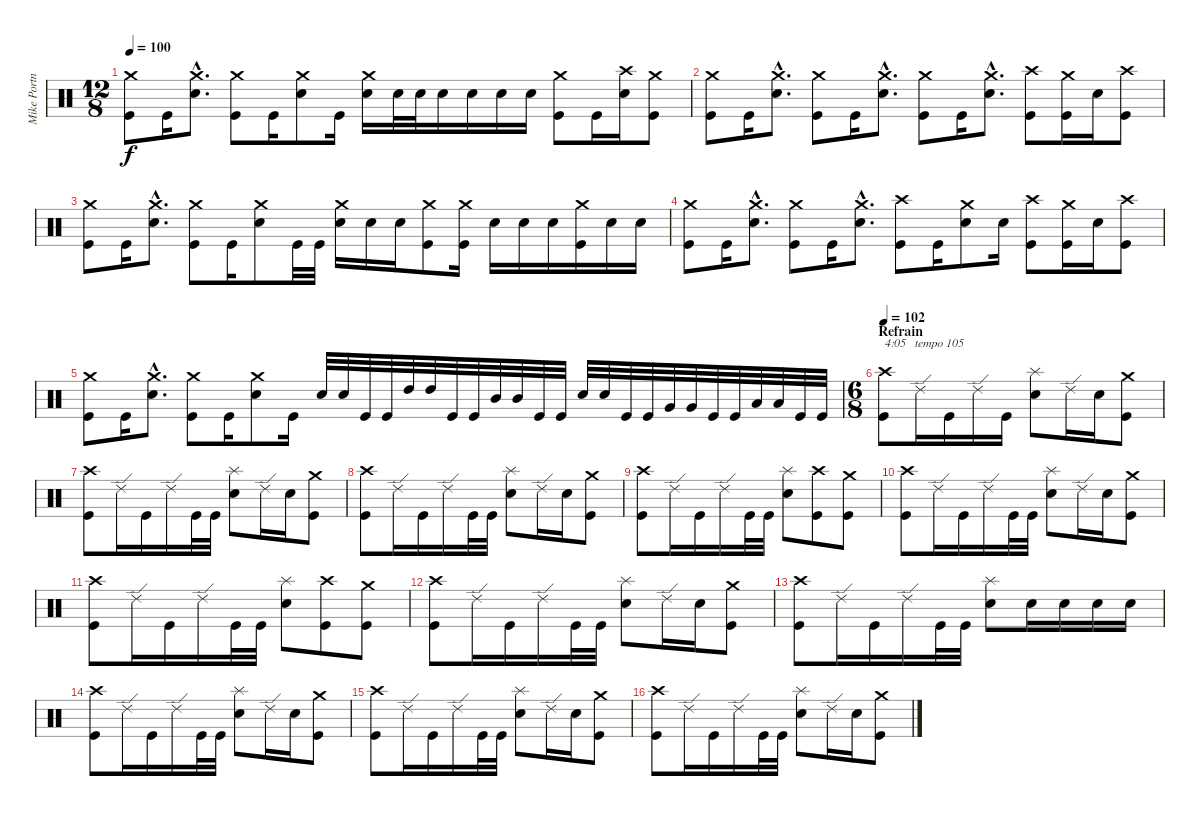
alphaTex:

\track ("Mike Portnoy" "Mike Portn") {instrument percussion}
\staff {score}
\articulation defaults
\ts (12 8)
\tempo 100
\clef neutral
\ks c
("Crash medium (hit)" "Kick (hit)").8{dy f} "Kick (hit)".16 ("Crash medium (hit)"{hac} "Snare (hit) 2"{hac}).8{d} ("Crash medium (hit)" "Kick (hit)").8 "Kick (hit)".16 ("Crash medium (hit)" "Snare (hit) 2").8 "Kick (hit)".16 ("Crash medium (hit)" "Snare (hit) 2").16 "Snare (hit) 2".32 "Snare (hit) 2".32 "Snare (hit) 2".16 "Snare (hit) 2".16 "Snare (hit) 2".16 "Snare (hit) 2".16 ("Crash medium (hit)" "Kick (hit)").8 "Kick (hit)".16 ("Crash high (hit)" "Snare (hit) 2").16 ("Crash medium (hit)" "Kick (hit)").8 |
\section ("" "")
("Crash medium (hit)" "Kick (hit)").8 "Kick (hit)".16 ("Crash medium (hit)"{hac} "Snare (hit) 2"{hac}).8{d} ("Crash medium (hit)" "Kick (hit)").8 "Kick (hit)".16 ("Crash medium (hit)"{hac} "Snare (hit) 2"{hac}).8{d} ("Crash medium (hit)" "Kick (hit)").8 "Kick (hit)".16 ("Crash medium (hit)"{hac} "Snare (hit) 2"{hac}).8{d} ("Crash high (hit)" "Kick (hit)").8 ("Crash medium (hit)" "Kick (hit)").16 "Snare (hit) 2".16 ("Crash high (hit)" "Kick (hit)").8 |
("Crash medium (hit)" "Kick (hit)").8 "Kick (hit)".16 ("Crash medium (hit)"{hac} "Snare (hit) 2"{hac}).8{d} ("Crash medium (hit)" "Kick (hit)").8 "Kick (hit)".16 ("Crash medium (hit)" "Snare (hit) 2").8 "Kick (hit)".32 "Kick (hit)".32 ("Crash medium (hit)" "Snare (hit) 2").16 "Snare (hit) 2".16 "Snare (hit) 2".16 ("Crash medium (hit)" "Kick (hit)").8 ("Crash medium (hit)" "Kick (hit)").16 "Snare (hit) 2".16 "Snare (hit) 2".16 "Snare (hit) 2".16 ("Crash medium (hit)" "Kick (hit)").16 "Snare (hit) 2".16 "Snare (hit) 2".16 |
("Crash medium (hit)" "Kick (hit)").8 "Kick (hit)".16 ("Crash medium (hit)"{hac} "Snare (hit) 2"{hac}).8{d} ("Crash medium (hit)" "Kick (hit)").8 "Kick (hit)".16 ("Crash medium (hit)"{hac} "Snare (hit) 2"{hac}).8{d} ("Crash high (hit)" "Kick (hit)").8 "Kick (hit)".16 ("Crash medium (hit)" "Snare (hit) 2").8 "Snare (hit) 2".16 ("Crash high (hit)" "Kick (hit)").8 ("Crash medium (hit)" "Kick (hit)").16 "Snare (hit) 2".16 ("Crash high (hit)" "Kick (hit)").8 |
("Crash medium (hit)" "Kick (hit)").8 "Kick (hit)".16 ("Crash medium (hit)"{hac} "Snare (hit) 2"{hac}).8{d} ("Crash medium (hit)" "Kick (hit)").8 "Kick (hit)".16 ("Crash medium (hit)" "Snare (hit) 2").8 "Kick (hit)".16 "Snare (hit) 2".32 "Snare (hit) 2".32 "Kick (hit)".32 "Kick (hit)".32 "High Tom (hit)".32 "High Tom (hit)".32 "Kick (hit)".32 "Kick (hit)".32 "Mid Tom (hit)".32 "Mid Tom (hit)".32 "Kick (hit)".32 "Kick (hit)".32 "Snare (hit) 2".32 "Snare (hit) 2".32 "Kick (hit)".32 "Kick (hit)".32 "Very Low Tom (hit)".32 "Very Low Tom (hit)".32 "Kick (hit)".32 "Kick (hit)".32 "Low Tom (hit)".32 "Low Tom (hit)".32 "Kick (hit)".32 "Kick (hit)".32 |
\ts (6 8)
\section ("" "Refrain")
\tempo 102
("Crash high (hit)" "Kick (hit)").8{txt "4:05   tempo 105"} "Ride (edge) 2".16 "Kick (hit)".16 "Ride (edge) 2".16 "Kick (hit)".16 ("Splash (hit)" "Snare (hit) 2").8 "Ride (edge) 2".16 "Snare (hit) 2".16 ("Crash medium (hit)" "Kick (hit)").8 |
("Crash high (hit)" "Kick (hit)").8 "Ride (edge) 2".16 "Kick (hit)".16 "Ride (edge) 2".16 "Kick (hit)".32 "Kick (hit)".32 ("Splash (hit)" "Snare (hit) 2").8 "Ride (edge) 2".16 "Snare (hit) 2".16 ("Crash medium (hit)" "Kick (hit)").8 |
("Crash high (hit)" "Kick (hit)").8 "Ride (edge) 2".16 "Kick (hit)".16 "Ride (edge) 2".16 "Kick (hit)".32 "Kick (hit)".32 ("Splash (hit)" "Snare (hit) 2").8 "Ride (edge) 2".16 "Snare (hit) 2".16 ("Crash medium (hit)" "Kick (hit)").8 |
("Crash high (hit)" "Kick (hit)").8 "Ride (edge) 2".16 "Kick (hit)".16 "Ride (edge) 2".16 "Kick (hit)".32 "Kick (hit)".32 ("Splash (hit)" "Snare (hit) 2").8 ("Crash high (hit)" "Kick (hit)").8 ("Crash medium (hit)" "Kick (hit)").8 |
("Crash high (hit)" "Kick (hit)").8 "Ride (edge) 2".16 "Kick (hit)".16 "Ride (edge) 2".16 "Kick (hit)".32 "Kick (hit)".32 ("Splash (hit)" "Snare (hit) 2").8 "Ride (edge) 2".16 "Snare (hit) 2".16 ("Crash medium (hit)" "Kick (hit)").8 |
("Crash high (hit)" "Kick (hit)").8 "Ride (edge) 2".16 "Kick (hit)".16 "Ride (edge) 2".16 "Kick (hit)".32 "Kick (hit)".32 ("Splash (hit)" "Snare (hit) 2").8 ("Crash high (hit)" "Kick (hit)").8 ("Crash medium (hit)" "Kick (hit)").8 |
("Crash high (hit)" "Kick (hit)").8 "Ride (edge) 2".16 "Kick (hit)".16 "Ride (edge) 2".16 "Kick (hit)".32 "Kick (hit)".32 ("Splash (hit)" "Snare (hit) 2").8 "Ride (edge) 2".16 "Snare (hit) 2".16 ("Crash medium (hit)" "Kick (hit)").8 |
("Crash high (hit)" "Kick (hit)").8 "Ride (edge) 2".16 "Kick (hit)".16 "Ride (edge) 2".16 "Kick (hit)".32 "Kick (hit)".32 ("Splash (hit)" "Snare (hit) 2").8 "Snare (hit) 2".16 "Snare (hit) 2".16 "Snare (hit) 2".16 "Snare (hit) 2".16 |
("Crash high (hit)" "Kick (hit)").8 "Ride (edge) 2".16 "Kick (hit)".16 "Ride (edge) 2".16 "Kick (hit)".32 "Kick (hit)".32 ("Splash (hit)" "Snare (hit) 2").8 "Ride (edge) 2".16 "Snare (hit) 2".16 ("Crash medium (hit)" "Kick (hit)").8 |
("Crash high (hit)" "Kick (hit)").8 "Ride (edge) 2".16 "Kick (hit)".16 "Ride (edge) 2".16 "Kick (hit)".32 "Kick (hit)".32 ("Splash (hit)" "Snare (hit) 2").8 "Ride (edge) 2".16 "Snare (hit) 2".16 ("Crash medium (hit)" "Kick (hit)").8 |
("Crash high (hit)" "Kick (hit)").8 "Ride (edge) 2".16 "Kick (hit)".16 "Ride (edge) 2".16 "Kick (hit)".32 "Kick (hit)".32 ("Splash (hit)" "Snare (hit) 2").8 "Ride (edge) 2".16 "Snare (hit) 2".16 ("Crash medium (hit)" "Kick (hit)").8
